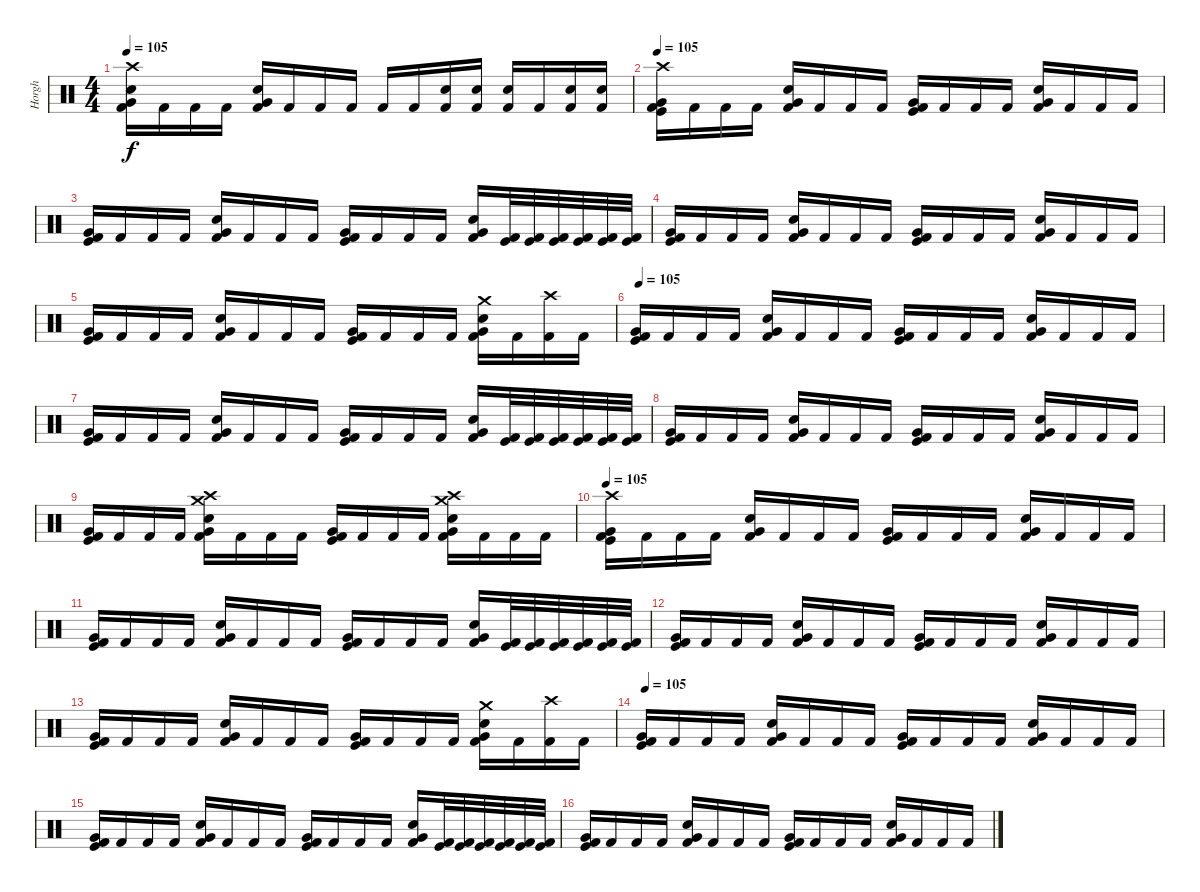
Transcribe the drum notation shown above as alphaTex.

\track ("Horgh" "Horgh") {instrument percussion}
\staff {score}
\articulation defaults
\ts (4 4)
\tempo 105
\clef neutral
\ks c
("Crash high (hit)" "Very Low Tom (hit)" "Electric Snare (hit)" "Kick (hit) 2").16{dy f} "Kick (hit) 2".16 "Kick (hit) 2".16 "Kick (hit) 2".16 ("Electric Snare (hit)" "Very Low Tom (hit)" "Kick (hit) 2").16 "Kick (hit) 2".16 "Kick (hit) 2".16 "Kick (hit) 2".16 "Kick (hit) 2".16 "Kick (hit) 2".16 ("Snare (hit) 2" "Kick (hit) 2").16 ("Snare (hit) 2" "Kick (hit) 2").16 ("Snare (hit) 2" "Kick (hit) 2").16 "Kick (hit) 2".16 ("Snare (hit) 2" "Kick (hit) 2").16 ("Snare (hit) 2" "Kick (hit) 2").16 |
\tempo 105
("Crash high (hit)" "Kick (hit) 2" "Very Low Tom (hit)" "Kick (hit)").16 "Kick (hit) 2".16 "Kick (hit) 2".16 "Kick (hit) 2".16 ("Snare (hit) 2" "Very Low Tom (hit)" "Kick (hit) 2").16 "Kick (hit) 2".16 "Kick (hit) 2".16 "Kick (hit) 2".16 ("Kick (hit) 2" "Very Low Tom (hit)" "Kick (hit)").16 "Kick (hit) 2".16 "Kick (hit) 2".16 "Kick (hit) 2".16 ("Snare (hit) 2" "Very Low Tom (hit)" "Kick (hit) 2").16 "Kick (hit) 2".16 "Kick (hit) 2".16 "Kick (hit) 2".16 |
("Kick (hit) 2" "Very Low Tom (hit)" "Kick (hit)").16 "Kick (hit) 2".16 "Kick (hit) 2".16 "Kick (hit) 2".16 ("Snare (hit) 2" "Very Low Tom (hit)" "Kick (hit) 2").16 "Kick (hit) 2".16 "Kick (hit) 2".16 "Kick (hit) 2".16 ("Kick (hit) 2" "Very Low Tom (hit)" "Kick (hit)").16 "Kick (hit) 2".16 "Kick (hit) 2".16 "Kick (hit) 2".16 ("Snare (hit) 2" "Very Low Tom (hit)" "Kick (hit) 2").16 ("Kick (hit)" "Kick (hit) 2").32 ("Kick (hit)" "Kick (hit) 2").32 ("Kick (hit)" "Kick (hit) 2").32 ("Kick (hit)" "Kick (hit) 2").32 ("Kick (hit)" "Kick (hit) 2").32 ("Kick (hit)" "Kick (hit) 2").32 |
("Kick (hit) 2" "Very Low Tom (hit)" "Kick (hit)").16 "Kick (hit) 2".16 "Kick (hit) 2".16 "Kick (hit) 2".16 ("Snare (hit) 2" "Very Low Tom (hit)" "Kick (hit) 2").16 "Kick (hit) 2".16 "Kick (hit) 2".16 "Kick (hit) 2".16 ("Kick (hit) 2" "Very Low Tom (hit)" "Kick (hit)").16 "Kick (hit) 2".16 "Kick (hit) 2".16 "Kick (hit) 2".16 ("Snare (hit) 2" "Very Low Tom (hit)" "Kick (hit) 2").16 "Kick (hit) 2".16 "Kick (hit) 2".16 "Kick (hit) 2".16 |
("Kick (hit) 2" "Very Low Tom (hit)" "Kick (hit)").16 "Kick (hit) 2".16 "Kick (hit) 2".16 "Kick (hit) 2".16 ("Snare (hit) 2" "Very Low Tom (hit)" "Kick (hit) 2").16 "Kick (hit) 2".16 "Kick (hit) 2".16 "Kick (hit) 2".16 ("Kick (hit) 2" "Very Low Tom (hit)" "Kick (hit)").16 "Kick (hit) 2".16 "Kick (hit) 2".16 "Kick (hit) 2".16 ("Crash medium (hit)" "Snare (hit) 2" "Very Low Tom (hit)" "Kick (hit) 2").16 "Kick (hit) 2".16 ("Crash high (hit)" "Kick (hit) 2").16 "Kick (hit) 2".16 |
\tempo 105
("Kick (hit) 2" "Very Low Tom (hit)" "Kick (hit)").16 "Kick (hit) 2".16 "Kick (hit) 2".16 "Kick (hit) 2".16 ("Snare (hit) 2" "Very Low Tom (hit)" "Kick (hit) 2").16 "Kick (hit) 2".16 "Kick (hit) 2".16 "Kick (hit) 2".16 ("Kick (hit) 2" "Very Low Tom (hit)" "Kick (hit)").16 "Kick (hit) 2".16 "Kick (hit) 2".16 "Kick (hit) 2".16 ("Snare (hit) 2" "Very Low Tom (hit)" "Kick (hit) 2").16 "Kick (hit) 2".16 "Kick (hit) 2".16 "Kick (hit) 2".16 |
("Kick (hit) 2" "Very Low Tom (hit)" "Kick (hit)").16 "Kick (hit) 2".16 "Kick (hit) 2".16 "Kick (hit) 2".16 ("Snare (hit) 2" "Very Low Tom (hit)" "Kick (hit) 2").16 "Kick (hit) 2".16 "Kick (hit) 2".16 "Kick (hit) 2".16 ("Kick (hit) 2" "Very Low Tom (hit)" "Kick (hit)").16 "Kick (hit) 2".16 "Kick (hit) 2".16 "Kick (hit) 2".16 ("Snare (hit) 2" "Very Low Tom (hit)" "Kick (hit) 2").16 ("Kick (hit)" "Kick (hit) 2").32 ("Kick (hit)" "Kick (hit) 2").32 ("Kick (hit)" "Kick (hit) 2").32 ("Kick (hit)" "Kick (hit) 2").32 ("Kick (hit)" "Kick (hit) 2").32 ("Kick (hit)" "Kick (hit) 2").32 |
("Kick (hit) 2" "Very Low Tom (hit)" "Kick (hit)").16 "Kick (hit) 2".16 "Kick (hit) 2".16 "Kick (hit) 2".16 ("Snare (hit) 2" "Very Low Tom (hit)" "Kick (hit) 2").16 "Kick (hit) 2".16 "Kick (hit) 2".16 "Kick (hit) 2".16 ("Kick (hit) 2" "Very Low Tom (hit)" "Kick (hit)").16 "Kick (hit) 2".16 "Kick (hit) 2".16 "Kick (hit) 2".16 ("Snare (hit) 2" "Very Low Tom (hit)" "Kick (hit) 2").16 "Kick (hit) 2".16 "Kick (hit) 2".16 "Kick (hit) 2".16 |
("Kick (hit) 2" "Very Low Tom (hit)" "Kick (hit)").16 "Kick (hit) 2".16 "Kick (hit) 2".16 "Kick (hit) 2".16 ("Crash medium (hit)" "Crash high (hit)" "Snare (hit) 2" "Very Low Tom (hit)" "Kick (hit) 2").16 "Kick (hit) 2".16 "Kick (hit) 2".16 "Kick (hit) 2".16 ("Kick (hit) 2" "Very Low Tom (hit)" "Kick (hit)").16 "Kick (hit) 2".16 "Kick (hit) 2".16 "Kick (hit) 2".16 ("Crash medium (hit)" "Crash high (hit)" "Snare (hit) 2" "Very Low Tom (hit)" "Kick (hit) 2").16 "Kick (hit) 2".16 "Kick (hit) 2".16 "Kick (hit) 2".16 |
\tempo 105
("Crash high (hit)" "Kick (hit) 2" "Very Low Tom (hit)" "Kick (hit)").16 "Kick (hit) 2".16 "Kick (hit) 2".16 "Kick (hit) 2".16 ("Snare (hit) 2" "Very Low Tom (hit)" "Kick (hit) 2").16 "Kick (hit) 2".16 "Kick (hit) 2".16 "Kick (hit) 2".16 ("Kick (hit) 2" "Very Low Tom (hit)" "Kick (hit)").16 "Kick (hit) 2".16 "Kick (hit) 2".16 "Kick (hit) 2".16 ("Snare (hit) 2" "Very Low Tom (hit)" "Kick (hit) 2").16 "Kick (hit) 2".16 "Kick (hit) 2".16 "Kick (hit) 2".16 |
("Kick (hit) 2" "Very Low Tom (hit)" "Kick (hit)").16 "Kick (hit) 2".16 "Kick (hit) 2".16 "Kick (hit) 2".16 ("Snare (hit) 2" "Very Low Tom (hit)" "Kick (hit) 2").16 "Kick (hit) 2".16 "Kick (hit) 2".16 "Kick (hit) 2".16 ("Kick (hit) 2" "Very Low Tom (hit)" "Kick (hit)").16 "Kick (hit) 2".16 "Kick (hit) 2".16 "Kick (hit) 2".16 ("Snare (hit) 2" "Very Low Tom (hit)" "Kick (hit) 2").16 ("Kick (hit)" "Kick (hit) 2").32 ("Kick (hit)" "Kick (hit) 2").32 ("Kick (hit)" "Kick (hit) 2").32 ("Kick (hit)" "Kick (hit) 2").32 ("Kick (hit)" "Kick (hit) 2").32 ("Kick (hit)" "Kick (hit) 2").32 |
("Kick (hit) 2" "Very Low Tom (hit)" "Kick (hit)").16 "Kick (hit) 2".16 "Kick (hit) 2".16 "Kick (hit) 2".16 ("Snare (hit) 2" "Very Low Tom (hit)" "Kick (hit) 2").16 "Kick (hit) 2".16 "Kick (hit) 2".16 "Kick (hit) 2".16 ("Kick (hit) 2" "Very Low Tom (hit)" "Kick (hit)").16 "Kick (hit) 2".16 "Kick (hit) 2".16 "Kick (hit) 2".16 ("Snare (hit) 2" "Very Low Tom (hit)" "Kick (hit) 2").16 "Kick (hit) 2".16 "Kick (hit) 2".16 "Kick (hit) 2".16 |
("Kick (hit) 2" "Very Low Tom (hit)" "Kick (hit)").16 "Kick (hit) 2".16 "Kick (hit) 2".16 "Kick (hit) 2".16 ("Snare (hit) 2" "Very Low Tom (hit)" "Kick (hit) 2").16 "Kick (hit) 2".16 "Kick (hit) 2".16 "Kick (hit) 2".16 ("Kick (hit) 2" "Very Low Tom (hit)" "Kick (hit)").16 "Kick (hit) 2".16 "Kick (hit) 2".16 "Kick (hit) 2".16 ("Crash medium (hit)" "Snare (hit) 2" "Very Low Tom (hit)" "Kick (hit) 2").16 "Kick (hit) 2".16 ("Crash high (hit)" "Kick (hit) 2").16 "Kick (hit) 2".16 |
\tempo 105
("Kick (hit) 2" "Very Low Tom (hit)" "Kick (hit)").16 "Kick (hit) 2".16 "Kick (hit) 2".16 "Kick (hit) 2".16 ("Snare (hit) 2" "Very Low Tom (hit)" "Kick (hit) 2").16 "Kick (hit) 2".16 "Kick (hit) 2".16 "Kick (hit) 2".16 ("Kick (hit) 2" "Very Low Tom (hit)" "Kick (hit)").16 "Kick (hit) 2".16 "Kick (hit) 2".16 "Kick (hit) 2".16 ("Snare (hit) 2" "Very Low Tom (hit)" "Kick (hit) 2").16 "Kick (hit) 2".16 "Kick (hit) 2".16 "Kick (hit) 2".16 |
("Kick (hit) 2" "Very Low Tom (hit)" "Kick (hit)").16 "Kick (hit) 2".16 "Kick (hit) 2".16 "Kick (hit) 2".16 ("Snare (hit) 2" "Very Low Tom (hit)" "Kick (hit) 2").16 "Kick (hit) 2".16 "Kick (hit) 2".16 "Kick (hit) 2".16 ("Kick (hit) 2" "Very Low Tom (hit)" "Kick (hit)").16 "Kick (hit) 2".16 "Kick (hit) 2".16 "Kick (hit) 2".16 ("Snare (hit) 2" "Very Low Tom (hit)" "Kick (hit) 2").16 ("Kick (hit)" "Kick (hit) 2").32 ("Kick (hit)" "Kick (hit) 2").32 ("Kick (hit)" "Kick (hit) 2").32 ("Kick (hit)" "Kick (hit) 2").32 ("Kick (hit)" "Kick (hit) 2").32 ("Kick (hit)" "Kick (hit) 2").32 |
("Kick (hit) 2" "Very Low Tom (hit)" "Kick (hit)").16 "Kick (hit) 2".16 "Kick (hit) 2".16 "Kick (hit) 2".16 ("Snare (hit) 2" "Very Low Tom (hit)" "Kick (hit) 2").16 "Kick (hit) 2".16 "Kick (hit) 2".16 "Kick (hit) 2".16 ("Kick (hit) 2" "Very Low Tom (hit)" "Kick (hit)").16 "Kick (hit) 2".16 "Kick (hit) 2".16 "Kick (hit) 2".16 ("Snare (hit) 2" "Very Low Tom (hit)" "Kick (hit) 2").16 "Kick (hit) 2".16 "Kick (hit) 2".16 "Kick (hit) 2".16
